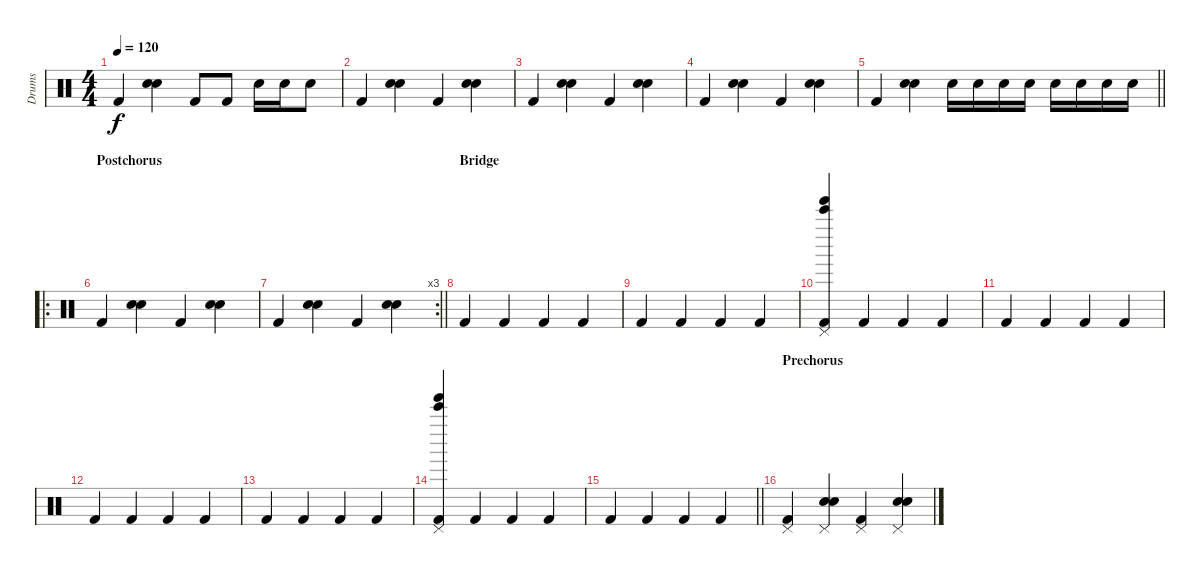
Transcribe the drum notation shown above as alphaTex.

\track ("Drums" "Drums") {instrument percussion}
\staff {score}
\articulation defaults
\ts (4 4)
\tempo 120
\clef neutral
\ks c "Kick (hit) 2".4{dy f}
("Electric Snare (hit)" "Snare (hit) 2").4 "Kick (hit) 2".8 "Kick (hit) 2".8 "Electric Snare (hit)".16 "Electric Snare (hit)".16 "Snare (hit) 2".8 |
"Kick (hit) 2".4 ("Electric Snare (hit)" "Snare (hit) 2").4 "Kick (hit) 2".4 ("Electric Snare (hit)" "Snare (hit) 2").4 |
"Kick (hit) 2".4 ("Electric Snare (hit)" "Snare (hit) 2").4 "Kick (hit) 2".4 ("Electric Snare (hit)" "Snare (hit) 2").4 |
"Kick (hit) 2".4 ("Electric Snare (hit)" "Snare (hit) 2").4 "Kick (hit) 2".4 ("Electric Snare (hit)" "Snare (hit) 2").4 |
\barLineRight lightlight "Kick (hit) 2".4
("Electric Snare (hit)" "Snare (hit) 2").4 "Snare (hit) 2".16 "Snare (hit) 2".16 "Snare (hit) 2".16 "Snare (hit) 2".16 "Snare (hit) 2".16 "Snare (hit) 2".16 "Snare (hit) 2".16 "Snare (hit) 2".16 |
\ro
\section ("" "Postchorus")
"Kick (hit) 2".4 ("Electric Snare (hit)" "Snare (hit) 2").4 "Kick (hit) 2".4 ("Electric Snare (hit)" "Snare (hit) 2").4 |
\rc 3
\barLineRight lightlight "Kick (hit) 2".4
("Electric Snare (hit)" "Snare (hit) 2").4 "Kick (hit) 2".4 ("Electric Snare (hit)" "Snare (hit) 2").4 |
\section ("" "Bridge")
"Kick (hit) 2".4 "Kick (hit) 2".4 "Kick (hit) 2".4 "Kick (hit) 2".4 |
"Kick (hit) 2".4 "Kick (hit) 2".4 "Kick (hit) 2".4 "Kick (hit) 2".4 |
("Bell Tree (hit)" "Tinkle Bell (hit)" "Pedal Hi-Hat (hit)" "Kick (hit) 2").4 "Kick (hit) 2".4 "Kick (hit) 2".4 "Kick (hit) 2".4 |
"Kick (hit) 2".4 "Kick (hit) 2".4 "Kick (hit) 2".4 "Kick (hit) 2".4 |
"Kick (hit) 2".4 "Kick (hit) 2".4 "Kick (hit) 2".4 "Kick (hit) 2".4 |
"Kick (hit) 2".4 "Kick (hit) 2".4 "Kick (hit) 2".4 "Kick (hit) 2".4 |
("Bell Tree (hit)" "Tinkle Bell (hit)" "Pedal Hi-Hat (hit)" "Kick (hit) 2").4 "Kick (hit) 2".4 "Kick (hit) 2".4 "Kick (hit) 2".4 |
\barLineRight lightlight "Kick (hit) 2".4 "Kick (hit) 2".4 "Kick (hit) 2".4 "Kick (hit) 2".4
|
\section ("" "Prechorus")
("Pedal Hi-Hat (hit)" "Kick (hit) 2").4 ("Pedal Hi-Hat (hit)" "Electric Snare (hit)" "Snare (hit) 2").4 ("Pedal Hi-Hat (hit)" "Kick (hit) 2").4 ("Pedal Hi-Hat (hit)" "Electric Snare (hit)" "Snare (hit) 2").4
